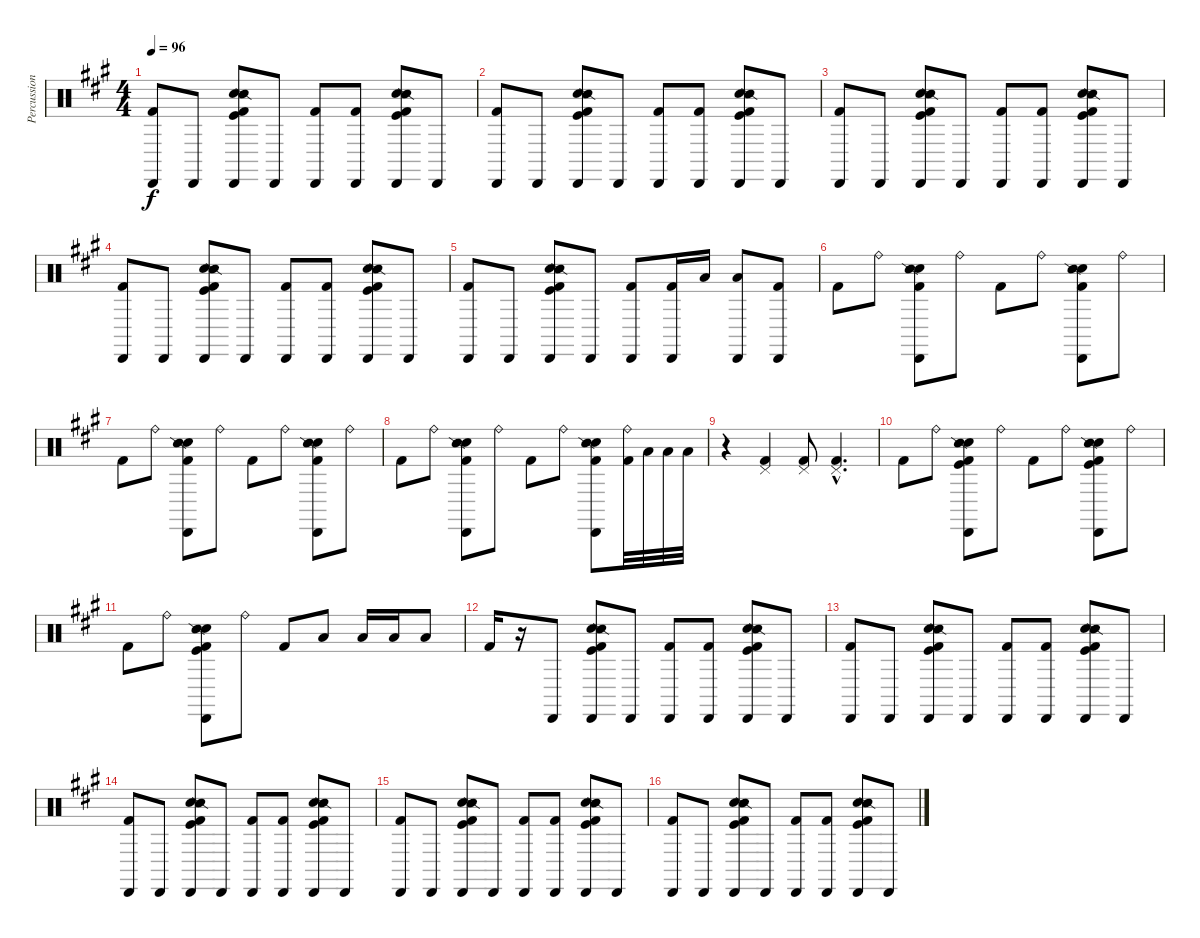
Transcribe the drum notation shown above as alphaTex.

\track ("Percussion" "Percussion") {instrument percussion}
\staff {score}
\articulation defaults
\ts (4 4)
\tempo 96
\clef neutral
\ks a
("Kick (hit) 2" "Cabasa (hit)").8{dy f} "Cabasa (hit)".8 ("Hand Clap (hit)" "Snare (side stick) 2" "Kick (hit) 2" "Kick (hit)" "Cabasa (hit)").8 "Cabasa (hit)".8 ("Kick (hit) 2" "Cabasa (hit)").8 ("Kick (hit) 2" "Cabasa (hit)").8 ("Hand Clap (hit)" "Snare (side stick) 2" "Kick (hit) 2" "Kick (hit)" "Cabasa (hit)").8 "Cabasa (hit)".8 |
("Kick (hit) 2" "Cabasa (hit)").8 "Cabasa (hit)".8 ("Hand Clap (hit)" "Snare (side stick) 2" "Kick (hit) 2" "Kick (hit)" "Cabasa (hit)").8 "Cabasa (hit)".8 ("Kick (hit) 2" "Cabasa (hit)").8 ("Kick (hit) 2" "Cabasa (hit)").8 ("Hand Clap (hit)" "Snare (side stick) 2" "Kick (hit) 2" "Kick (hit)" "Cabasa (hit)").8 "Cabasa (hit)".8 |
("Kick (hit) 2" "Cabasa (hit)").8 "Cabasa (hit)".8 ("Hand Clap (hit)" "Snare (side stick) 2" "Kick (hit) 2" "Kick (hit)" "Cabasa (hit)").8 "Cabasa (hit)".8 ("Kick (hit) 2" "Cabasa (hit)").8 ("Kick (hit) 2" "Cabasa (hit)").8 ("Hand Clap (hit)" "Snare (side stick) 2" "Kick (hit) 2" "Kick (hit)" "Cabasa (hit)").8 "Cabasa (hit)".8 |
("Kick (hit) 2" "Cabasa (hit)").8 "Cabasa (hit)".8 ("Hand Clap (hit)" "Snare (side stick) 2" "Kick (hit) 2" "Kick (hit)" "Cabasa (hit)").8 "Cabasa (hit)".8 ("Kick (hit) 2" "Cabasa (hit)").8 ("Kick (hit) 2" "Cabasa (hit)").8 ("Hand Clap (hit)" "Snare (side stick) 2" "Kick (hit) 2" "Kick (hit)" "Cabasa (hit)").8 "Cabasa (hit)".8 |
("Kick (hit) 2" "Cabasa (hit)").8 "Cabasa (hit)".8 ("Hand Clap (hit)" "Snare (side stick) 2" "Kick (hit) 2" "Kick (hit)" "Cabasa (hit)").8 "Cabasa (hit)".8 ("Kick (hit) 2" "Cabasa (hit)").8 ("Kick (hit) 2" "Cabasa (hit)").16 "Low Floor Tom (hit)".16 ("Low Floor Tom (hit)" "Cabasa (hit)").8 ("Kick (hit) 2" "Cabasa (hit)").8 |
"Kick (hit) 2".8 "Ride (bell)".8 ("Hand Clap (hit)" "Snare (side stick) 2" "Kick (hit) 2" "Cabasa (hit)").8 "Ride (bell)".8 "Kick (hit) 2".8 "Ride (bell)".8 ("Hand Clap (hit)" "Snare (side stick) 2" "Kick (hit) 2" "Cabasa (hit)").8 "Ride (bell)".8 |
"Kick (hit) 2".8 "Ride (bell)".8 ("Hand Clap (hit)" "Snare (side stick) 2" "Kick (hit) 2" "Cabasa (hit)").8 "Ride (bell)".8 "Kick (hit) 2".8 "Ride (bell)".8 ("Hand Clap (hit)" "Snare (side stick) 2" "Kick (hit) 2" "Cabasa (hit)").8 "Ride (bell)".8 |
"Kick (hit) 2".8 "Ride (bell)".8 ("Hand Clap (hit)" "Snare (side stick) 2" "Kick (hit) 2" "Cabasa (hit)").8 "Ride (bell)".8 "Kick (hit) 2".8 "Ride (bell)".8 ("Hand Clap (hit)" "Snare (side stick) 2" "Kick (hit) 2" "Cabasa (hit)").8 ("Ride (bell)" "Kick (hit) 2").32 "Low Floor Tom (hit)".32 "Low Floor Tom (hit)".32 "Low Floor Tom (hit)".32 |
r.4 ("Kick (hit) 2" "Pedal Hi-Hat (hit)").4 ("Kick (hit) 2" "Pedal Hi-Hat (hit)").8 ("Kick (hit) 2"{hac} "Pedal Hi-Hat (hit)"{hac}).4{d} |
"Kick (hit) 2".8 "Ride (bell)".8 ("Hand Clap (hit)" "Snare (side stick) 2" "Kick (hit) 2" "Kick (hit)" "Cabasa (hit)").8 "Ride (bell)".8 "Kick (hit) 2".8 "Ride (bell)".8 ("Hand Clap (hit)" "Snare (side stick) 2" "Kick (hit) 2" "Kick (hit)" "Cabasa (hit)").8 "Ride (bell)".8 |
"Kick (hit) 2".8 "Ride (bell)".8 ("Hand Clap (hit)" "Snare (side stick) 2" "Kick (hit) 2" "Kick (hit)" "Cabasa (hit)").8 "Ride (bell)".8 "Kick (hit) 2".8 "Low Floor Tom (hit)".8 "Low Floor Tom (hit)".16 "Low Floor Tom (hit)".16 "Low Floor Tom (hit)".8 |
"Kick (hit) 2".16 r.16 "Cabasa (hit)".8 ("Hand Clap (hit)" "Snare (side stick) 2" "Kick (hit) 2" "Kick (hit)" "Cabasa (hit)").8 "Cabasa (hit)".8 ("Kick (hit) 2" "Cabasa (hit)").8 ("Kick (hit) 2" "Cabasa (hit)").8 ("Hand Clap (hit)" "Snare (side stick) 2" "Kick (hit) 2" "Kick (hit)" "Cabasa (hit)").8 "Cabasa (hit)".8 |
("Kick (hit) 2" "Cabasa (hit)").8 "Cabasa (hit)".8 ("Hand Clap (hit)" "Snare (side stick) 2" "Kick (hit) 2" "Kick (hit)" "Cabasa (hit)").8 "Cabasa (hit)".8 ("Kick (hit) 2" "Cabasa (hit)").8 ("Kick (hit) 2" "Cabasa (hit)").8 ("Hand Clap (hit)" "Snare (side stick) 2" "Kick (hit) 2" "Kick (hit)" "Cabasa (hit)").8 "Cabasa (hit)".8 |
("Kick (hit) 2" "Cabasa (hit)").8 "Cabasa (hit)".8 ("Hand Clap (hit)" "Snare (side stick) 2" "Kick (hit) 2" "Kick (hit)" "Cabasa (hit)").8 "Cabasa (hit)".8 ("Kick (hit) 2" "Cabasa (hit)").8 ("Kick (hit) 2" "Cabasa (hit)").8 ("Hand Clap (hit)" "Snare (side stick) 2" "Kick (hit) 2" "Kick (hit)" "Cabasa (hit)").8 "Cabasa (hit)".8 |
("Kick (hit) 2" "Cabasa (hit)").8 "Cabasa (hit)".8 ("Hand Clap (hit)" "Snare (side stick) 2" "Kick (hit) 2" "Kick (hit)" "Cabasa (hit)").8 "Cabasa (hit)".8 ("Kick (hit) 2" "Cabasa (hit)").8 ("Kick (hit) 2" "Cabasa (hit)").8 ("Hand Clap (hit)" "Snare (side stick) 2" "Kick (hit) 2" "Kick (hit)" "Cabasa (hit)").8 "Cabasa (hit)".8 |
("Kick (hit) 2" "Cabasa (hit)").8 "Cabasa (hit)".8 ("Hand Clap (hit)" "Snare (side stick) 2" "Kick (hit) 2" "Kick (hit)" "Cabasa (hit)").8 "Cabasa (hit)".8 ("Kick (hit) 2" "Cabasa (hit)").8 ("Kick (hit) 2" "Cabasa (hit)").8 ("Hand Clap (hit)" "Snare (side stick) 2" "Kick (hit) 2" "Kick (hit)" "Cabasa (hit)").8 "Cabasa (hit)".8
